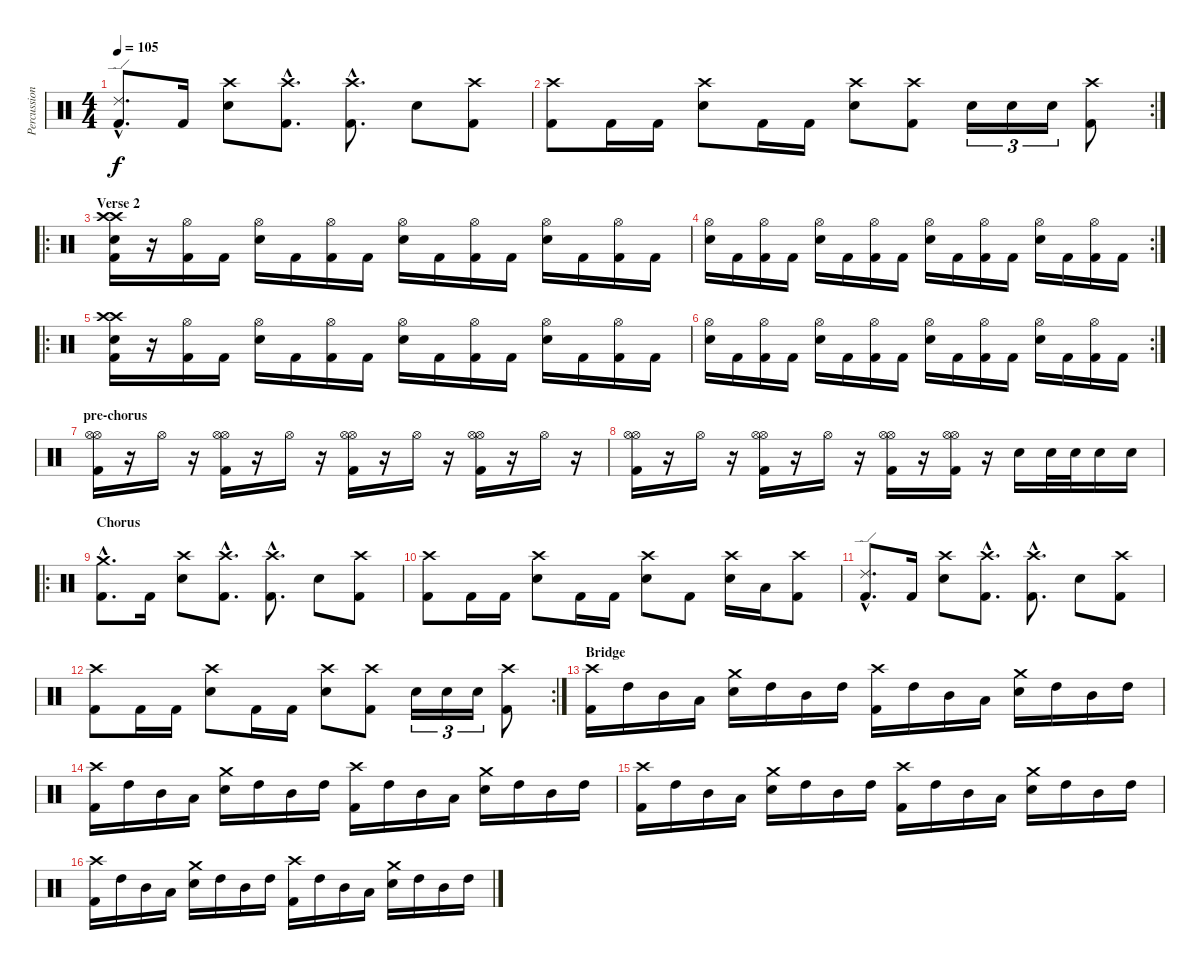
\track ("Percussions" "Percussion") {instrument percussion}
\staff {score}
\articulation defaults
\ts (4 4)
\tempo 105
\clef neutral
\ks c
("Kick (hit) 2"{hac} "Ride (edge) 2"{hac}).8{d dy f} "Kick (hit) 2".16 ("Snare (hit) 2" "Crash high (hit)").8 ("Kick (hit) 2"{hac} "Crash high (hit)"{hac}).8{d} ("Kick (hit) 2"{hac} "Crash high (hit)"{hac}).8{d} "Snare (hit) 2".8 ("Kick (hit) 2" "Crash high (hit)").8 |
\rc 2
("Kick (hit) 2" "Crash high (hit)").8 "Kick (hit) 2".16 "Kick (hit) 2".16 ("Snare (hit) 2" "Crash high (hit)").8 "Kick (hit) 2".16 "Kick (hit) 2".16 ("Snare (hit) 2" "Crash high (hit)").8 ("Kick (hit) 2" "Crash high (hit)").8 "Snare (hit) 2".16{tu (3 2)} "Snare (hit) 2".16{tu (3 2)} "Snare (hit) 2".16{tu (3 2)} ("Kick (hit) 2" "Crash high (hit)").8 |
\ro
\section ("" "Verse 2")
("Kick (hit) 2" "Snare (hit) 2" "Crash high (hit)" "Crash high (hit)").16 r.16 ("Kick (hit) 2" "Hi-Hat (open)").16 "Kick (hit) 2".16 ("Snare (hit) 2" "Hi-Hat (open)").16 "Kick (hit) 2".16 ("Kick (hit) 2" "Hi-Hat (open)").16 "Kick (hit) 2".16 ("Snare (hit) 2" "Hi-Hat (open)").16 "Kick (hit) 2".16 ("Kick (hit) 2" "Hi-Hat (open)").16 "Kick (hit) 2".16 ("Snare (hit) 2" "Hi-Hat (open)").16 "Kick (hit) 2".16 ("Kick (hit) 2" "Hi-Hat (open)").16 "Kick (hit) 2".16 |
\rc 2
("Snare (hit) 2" "Hi-Hat (open)").16 "Kick (hit) 2".16 ("Kick (hit) 2" "Hi-Hat (open)").16 "Kick (hit) 2".16 ("Snare (hit) 2" "Hi-Hat (open)").16 "Kick (hit) 2".16 ("Kick (hit) 2" "Hi-Hat (open)").16 "Kick (hit) 2".16 ("Snare (hit) 2" "Hi-Hat (open)").16 "Kick (hit) 2".16 ("Kick (hit) 2" "Hi-Hat (open)").16 "Kick (hit) 2".16 ("Snare (hit) 2" "Hi-Hat (open)").16 "Kick (hit) 2".16 ("Kick (hit) 2" "Hi-Hat (open)").16 "Kick (hit) 2".16 |
\ro
("Kick (hit) 2" "Snare (hit) 2" "Crash high (hit)" "Crash high (hit)").16 r.16 ("Kick (hit) 2" "Hi-Hat (open)").16 "Kick (hit) 2".16 ("Snare (hit) 2" "Hi-Hat (open)").16 "Kick (hit) 2".16 ("Kick (hit) 2" "Hi-Hat (open)").16 "Kick (hit) 2".16 ("Snare (hit) 2" "Hi-Hat (open)").16 "Kick (hit) 2".16 ("Kick (hit) 2" "Hi-Hat (open)").16 "Kick (hit) 2".16 ("Snare (hit) 2" "Hi-Hat (open)").16 "Kick (hit) 2".16 ("Kick (hit) 2" "Hi-Hat (open)").16 "Kick (hit) 2".16 |
\rc 2
("Snare (hit) 2" "Hi-Hat (open)").16 "Kick (hit) 2".16 ("Kick (hit) 2" "Hi-Hat (open)").16 "Kick (hit) 2".16 ("Snare (hit) 2" "Hi-Hat (open)").16 "Kick (hit) 2".16 ("Kick (hit) 2" "Hi-Hat (open)").16 "Kick (hit) 2".16 ("Snare (hit) 2" "Hi-Hat (open)").16 "Kick (hit) 2".16 ("Kick (hit) 2" "Hi-Hat (open)").16 "Kick (hit) 2".16 ("Snare (hit) 2" "Hi-Hat (open)").16 "Kick (hit) 2".16 ("Kick (hit) 2" "Hi-Hat (open)").16 "Kick (hit) 2".16 |
\section ("" "pre-chorus")
("Kick (hit) 2" "Hi-Hat (open)" "Hi-Hat (open)").16 r.16 "Hi-Hat (open)".16 r.16 ("Kick (hit) 2" "Hi-Hat (open)" "Hi-Hat (open)").16 r.16 "Hi-Hat (open)".16 r.16 ("Kick (hit) 2" "Hi-Hat (open)" "Hi-Hat (open)").16 r.16 "Hi-Hat (open)".16 r.16 ("Kick (hit) 2" "Hi-Hat (open)" "Hi-Hat (open)").16 r.16 "Hi-Hat (open)".16 r.16 |
("Kick (hit) 2" "Hi-Hat (open)" "Hi-Hat (open)").16 r.16 "Hi-Hat (open)".16 r.16 ("Kick (hit) 2" "Hi-Hat (open)" "Hi-Hat (open)").16 r.16 "Hi-Hat (open)".16 r.16 ("Kick (hit) 2" "Hi-Hat (open)" "Hi-Hat (open)").16 r.16 ("Kick (hit) 2" "Hi-Hat (open)" "Hi-Hat (open)").16 r.16 "Snare (hit) 2".16 "Snare (hit) 2".32 "Snare (hit) 2".32 "Snare (hit) 2".16 "Snare (hit) 2".16 |
\ro
\section ("" "Chorus")
("Kick (hit) 2"{hac} "Crash medium (hit)"{hac}).8{d} "Kick (hit) 2".16 ("Snare (hit) 2" "Crash high (hit)").8 ("Kick (hit) 2"{hac} "Crash high (hit)"{hac}).8{d} ("Kick (hit) 2"{hac} "Crash high (hit)"{hac}).8{d} "Snare (hit) 2".8 ("Kick (hit) 2" "Crash high (hit)").8 |
("Kick (hit) 2" "Crash high (hit)").8 "Kick (hit) 2".16 "Kick (hit) 2".16 ("Snare (hit) 2" "Crash high (hit)").8 "Kick (hit) 2".16 "Kick (hit) 2".16 ("Snare (hit) 2" "Crash high (hit)").8 "Kick (hit) 2".8 ("Snare (hit) 2" "Crash high (hit)").16 "Low Tom (hit)".16 ("Kick (hit) 2" "Crash high (hit)").8 |
("Kick (hit) 2"{hac} "Ride (edge) 2"{hac}).8{d} "Kick (hit) 2".16 ("Snare (hit) 2" "Crash high (hit)").8 ("Kick (hit) 2"{hac} "Crash high (hit)"{hac}).8{d} ("Kick (hit) 2"{hac} "Crash high (hit)"{hac}).8{d} "Snare (hit) 2".8 ("Kick (hit) 2" "Crash high (hit)").8 |
\rc 2
("Kick (hit) 2" "Crash high (hit)").8 "Kick (hit) 2".16 "Kick (hit) 2".16 ("Snare (hit) 2" "Crash high (hit)").8 "Kick (hit) 2".16 "Kick (hit) 2".16 ("Snare (hit) 2" "Crash high (hit)").8 ("Kick (hit) 2" "Crash high (hit)").8 "Snare (hit) 2".16{tu (3 2)} "Snare (hit) 2".16{tu (3 2)} "Snare (hit) 2".16{tu (3 2)} ("Kick (hit) 2" "Crash high (hit)").8 |
\section ("" "Bridge")
("Kick (hit) 2" "Crash high (hit)").16 "High Tom (hit)".16 "Mid Tom (hit)".16 "Low Tom (hit)".16 ("Snare (hit) 2" "Crash medium (hit)").16 "High Tom (hit)".16 "Mid Tom (hit)".16 "High Tom (hit)".16 ("Kick (hit) 2" "Crash high (hit)").16 "High Tom (hit)".16 "Mid Tom (hit)".16 "Low Tom (hit)".16 ("Snare (hit) 2" "Crash medium (hit)").16 "High Tom (hit)".16 "Mid Tom (hit)".16 "High Tom (hit)".16 |
("Kick (hit) 2" "Crash high (hit)").16 "High Tom (hit)".16 "Mid Tom (hit)".16 "Low Tom (hit)".16 ("Snare (hit) 2" "Crash medium (hit)").16 "High Tom (hit)".16 "Mid Tom (hit)".16 "High Tom (hit)".16 ("Kick (hit) 2" "Crash high (hit)").16 "High Tom (hit)".16 "Mid Tom (hit)".16 "Low Tom (hit)".16 ("Snare (hit) 2" "Crash medium (hit)").16 "High Tom (hit)".16 "Mid Tom (hit)".16 "High Tom (hit)".16 |
("Kick (hit) 2" "Crash high (hit)").16 "High Tom (hit)".16 "Mid Tom (hit)".16 "Low Tom (hit)".16 ("Snare (hit) 2" "Crash medium (hit)").16 "High Tom (hit)".16 "Mid Tom (hit)".16 "High Tom (hit)".16 ("Kick (hit) 2" "Crash high (hit)").16 "High Tom (hit)".16 "Mid Tom (hit)".16 "Low Tom (hit)".16 ("Snare (hit) 2" "Crash medium (hit)").16 "High Tom (hit)".16 "Mid Tom (hit)".16 "High Tom (hit)".16 |
("Kick (hit) 2" "Crash high (hit)").16 "High Tom (hit)".16 "Mid Tom (hit)".16 "Low Tom (hit)".16 ("Snare (hit) 2" "Crash medium (hit)").16 "High Tom (hit)".16 "Mid Tom (hit)".16 "High Tom (hit)".16 ("Kick (hit) 2" "Crash high (hit)").16 "High Tom (hit)".16 "Mid Tom (hit)".16 "Low Tom (hit)".16 ("Snare (hit) 2" "Crash medium (hit)").16 "High Tom (hit)".16 "Mid Tom (hit)".16 "High Tom (hit)".16
